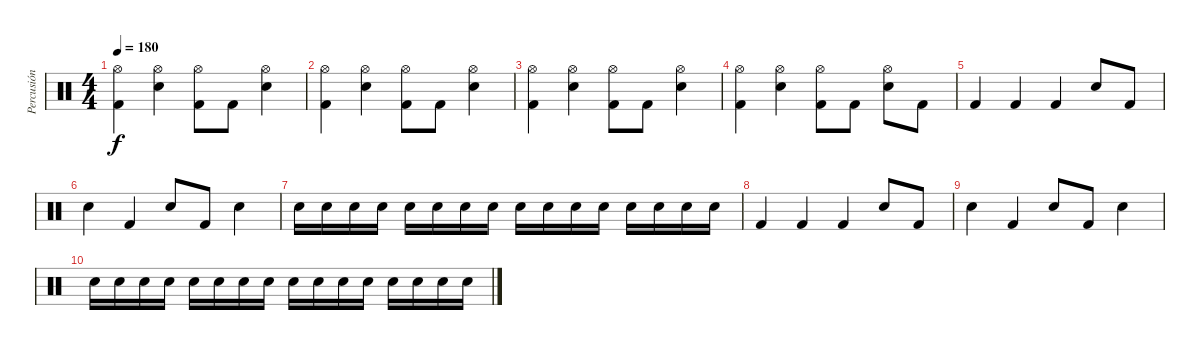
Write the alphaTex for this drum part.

\track ("Percusión" "Percusión") {instrument percussion}
\staff {score}
\articulation defaults
\ts (4 4)
\tempo 180
\clef neutral
\ks c
("Kick (hit) 2" "Hi-Hat (open)").4{dy f} ("Electric Snare (hit)" "Hi-Hat (open)").4 ("Kick (hit) 2" "Hi-Hat (open)").8 "Kick (hit) 2".8 ("Electric Snare (hit)" "Hi-Hat (open)").4 |
("Kick (hit) 2" "Hi-Hat (open)").4 ("Electric Snare (hit)" "Hi-Hat (open)").4 ("Kick (hit) 2" "Hi-Hat (open)").8 "Kick (hit) 2".8 ("Electric Snare (hit)" "Hi-Hat (open)").4 |
("Kick (hit) 2" "Hi-Hat (open)").4 ("Electric Snare (hit)" "Hi-Hat (open)").4 ("Kick (hit) 2" "Hi-Hat (open)").8 "Kick (hit) 2".8 ("Electric Snare (hit)" "Hi-Hat (open)").4 |
("Kick (hit) 2" "Hi-Hat (open)").4 ("Electric Snare (hit)" "Hi-Hat (open)").4 ("Kick (hit) 2" "Hi-Hat (open)").8 "Kick (hit) 2".8 ("Electric Snare (hit)" "Hi-Hat (open)").8 "Kick (hit) 2".8 |
"Kick (hit) 2".4 "Kick (hit) 2".4 "Kick (hit) 2".4 "Electric Snare (hit)".8 "Kick (hit) 2".8 |
"Electric Snare (hit)".4 "Kick (hit) 2".4 "Electric Snare (hit)".8 "Kick (hit) 2".8 "Electric Snare (hit)".4 |
"Electric Snare (hit)".16 "Electric Snare (hit)".16 "Electric Snare (hit)".16 "Electric Snare (hit)".16 "Electric Snare (hit)".16 "Electric Snare (hit)".16 "Electric Snare (hit)".16 "Electric Snare (hit)".16 "Electric Snare (hit)".16 "Electric Snare (hit)".16 "Electric Snare (hit)".16 "Electric Snare (hit)".16 "Electric Snare (hit)".16 "Electric Snare (hit)".16 "Electric Snare (hit)".16 "Electric Snare (hit)".16 |
"Kick (hit) 2".4 "Kick (hit) 2".4 "Kick (hit) 2".4 "Electric Snare (hit)".8 "Kick (hit) 2".8 |
"Electric Snare (hit)".4 "Kick (hit) 2".4 "Electric Snare (hit)".8 "Kick (hit) 2".8 "Electric Snare (hit)".4 |
"Electric Snare (hit)".16 "Electric Snare (hit)".16 "Electric Snare (hit)".16 "Electric Snare (hit)".16 "Electric Snare (hit)".16 "Electric Snare (hit)".16 "Electric Snare (hit)".16 "Electric Snare (hit)".16 "Electric Snare (hit)".16 "Electric Snare (hit)".16 "Electric Snare (hit)".16 "Electric Snare (hit)".16 "Electric Snare (hit)".16 "Electric Snare (hit)".16 "Electric Snare (hit)".16 "Electric Snare (hit)".16
